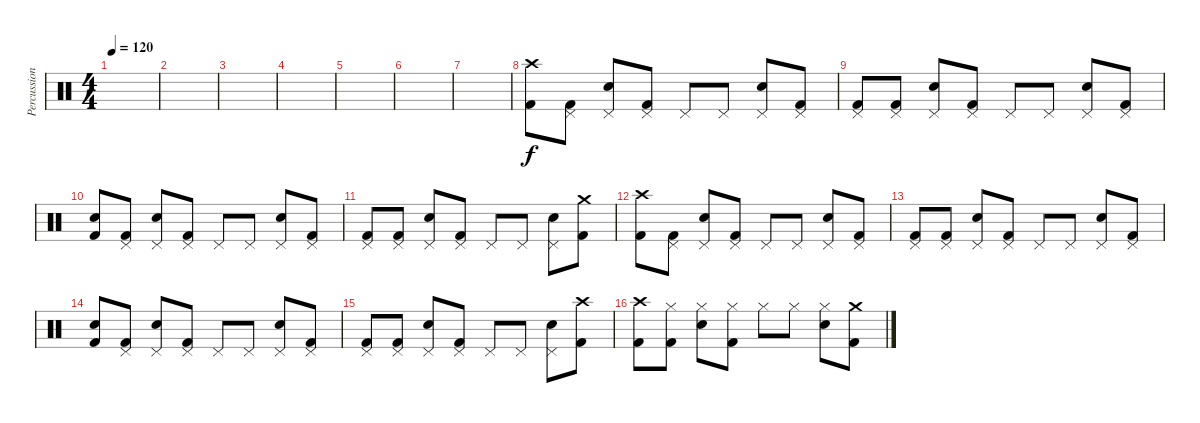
\track ("Percussion" "Percussion") {instrument percussion}
\staff {score}
\articulation defaults
\ts (4 4)
\tempo 120
\clef neutral
\ks c
|
|
|
|
|
|
|
("Crash high (hit)" "Kick (hit) 2").8 ("Pedal Hi-Hat (hit)" "Kick (hit) 2").8 ("Pedal Hi-Hat (hit)" "Snare (hit) 2").8 ("Pedal Hi-Hat (hit)" "Kick (hit) 2").8 "Pedal Hi-Hat (hit)".8 "Pedal Hi-Hat (hit)".8 ("Pedal Hi-Hat (hit)" "Snare (hit) 2").8 ("Pedal Hi-Hat (hit)" "Kick (hit) 2").8 |
("Pedal Hi-Hat (hit)" "Kick (hit) 2").8 ("Pedal Hi-Hat (hit)" "Kick (hit) 2").8 ("Pedal Hi-Hat (hit)" "Snare (hit) 2").8 ("Pedal Hi-Hat (hit)" "Kick (hit) 2").8 "Pedal Hi-Hat (hit)".8 "Pedal Hi-Hat (hit)".8 ("Pedal Hi-Hat (hit)" "Snare (hit) 2").8 ("Pedal Hi-Hat (hit)" "Kick (hit) 2").8 |
("Snare (hit)" "Kick (hit) 2").8 ("Pedal Hi-Hat (hit)" "Kick (hit) 2").8 ("Pedal Hi-Hat (hit)" "Snare (hit) 2").8 ("Pedal Hi-Hat (hit)" "Kick (hit) 2").8 "Pedal Hi-Hat (hit)".8 "Pedal Hi-Hat (hit)".8 ("Pedal Hi-Hat (hit)" "Snare (hit) 2").8 ("Pedal Hi-Hat (hit)" "Kick (hit) 2").8 |
("Pedal Hi-Hat (hit)" "Kick (hit) 2").8 ("Pedal Hi-Hat (hit)" "Kick (hit) 2").8 ("Pedal Hi-Hat (hit)" "Snare (hit) 2").8 ("Pedal Hi-Hat (hit)" "Kick (hit) 2").8 "Pedal Hi-Hat (hit)".8 "Pedal Hi-Hat (hit)".8 ("Pedal Hi-Hat (hit)" "Snare (hit) 2").8 ("Crash medium (hit)" "Kick (hit) 2").8 |
("Crash high (hit)" "Kick (hit) 2").8 ("Pedal Hi-Hat (hit)" "Kick (hit) 2").8 ("Pedal Hi-Hat (hit)" "Snare (hit) 2").8 ("Pedal Hi-Hat (hit)" "Kick (hit) 2").8 "Pedal Hi-Hat (hit)".8 "Pedal Hi-Hat (hit)".8 ("Pedal Hi-Hat (hit)" "Snare (hit) 2").8 ("Pedal Hi-Hat (hit)" "Kick (hit) 2").8 |
("Pedal Hi-Hat (hit)" "Kick (hit) 2").8 ("Pedal Hi-Hat (hit)" "Kick (hit) 2").8 ("Pedal Hi-Hat (hit)" "Snare (hit) 2").8 ("Pedal Hi-Hat (hit)" "Kick (hit) 2").8 "Pedal Hi-Hat (hit)".8 "Pedal Hi-Hat (hit)".8 ("Pedal Hi-Hat (hit)" "Snare (hit) 2").8 ("Pedal Hi-Hat (hit)" "Kick (hit) 2").8 |
("Snare (hit)" "Kick (hit) 2").8 ("Pedal Hi-Hat (hit)" "Kick (hit) 2").8 ("Pedal Hi-Hat (hit)" "Snare (hit) 2").8 ("Pedal Hi-Hat (hit)" "Kick (hit) 2").8 "Pedal Hi-Hat (hit)".8 "Pedal Hi-Hat (hit)".8 ("Pedal Hi-Hat (hit)" "Snare (hit) 2").8 ("Pedal Hi-Hat (hit)" "Kick (hit) 2").8 |
("Pedal Hi-Hat (hit)" "Kick (hit) 2").8 ("Pedal Hi-Hat (hit)" "Kick (hit) 2").8 ("Pedal Hi-Hat (hit)" "Snare (hit) 2").8 ("Pedal Hi-Hat (hit)" "Kick (hit) 2").8 "Pedal Hi-Hat (hit)".8 "Pedal Hi-Hat (hit)".8 ("Pedal Hi-Hat (hit)" "Snare (hit) 2").8 ("Crash high (hit)" "Kick (hit) 2").8 |
("Crash high (hit)" "Kick (hit) 2").8 ("Hi-Hat (closed)" "Kick (hit) 2").8 ("Hi-Hat (closed)" "Snare (hit) 2").8 ("Hi-Hat (closed)" "Kick (hit) 2").8 "Hi-Hat (closed)".8 "Hi-Hat (closed)".8 ("Hi-Hat (closed)" "Snare (hit) 2").8 ("Crash medium (hit)" "Kick (hit) 2").8
